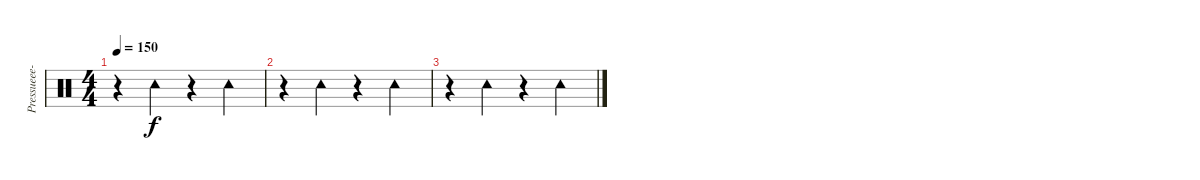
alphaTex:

\track ("" "Pressueee-") {instrument percussion}
\staff {score}
\articulation defaults
\ts (4 4)
\tempo 150
\clef neutral
\ks c
r.4{dy f} "Tambourine (hit)".4 r.4 "Tambourine (hit)".4 |
r.4 "Tambourine (hit)".4 r.4 "Tambourine (hit)".4 |
r.4 "Tambourine (hit)".4 r.4 "Tambourine (hit)".4
